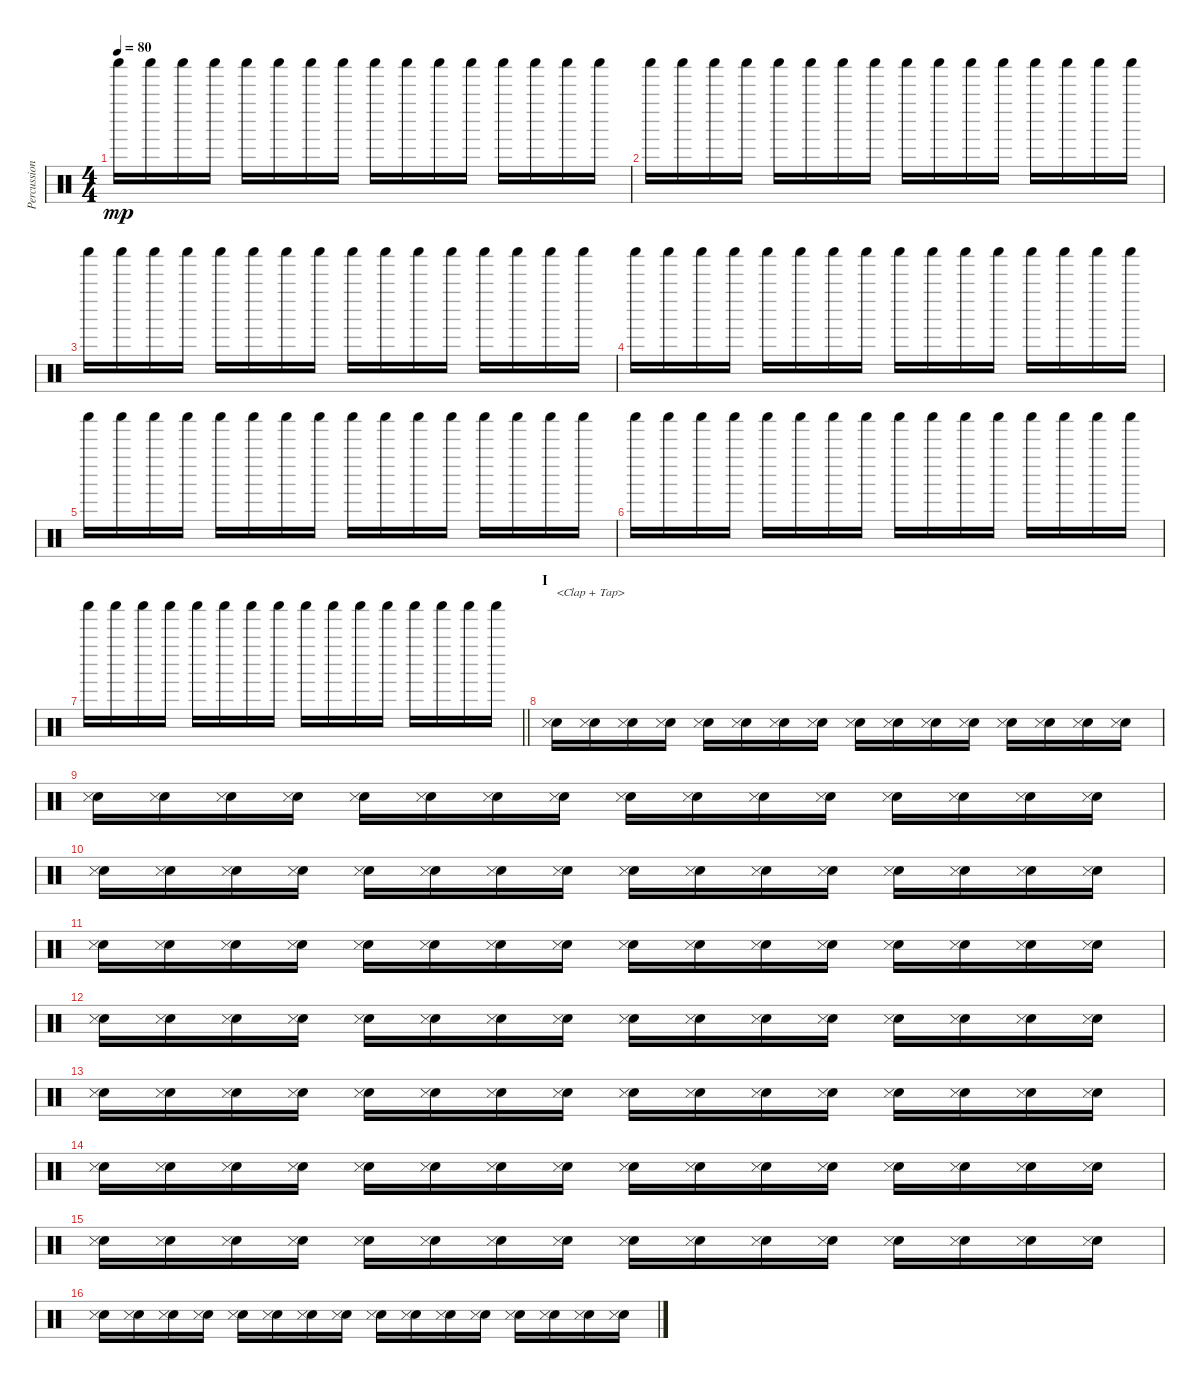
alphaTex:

\track ("Percussion" "Percussion") {instrument percussion}
\staff {score}
\articulation defaults
\ts (4 4)
\tempo 80
\clef neutral
\ks c "Shaker (hit)".16{dy mp} "Shaker (hit)".16 "Shaker (hit)".16 "Shaker (hit)".16 "Shaker (hit)".16 "Shaker (hit)".16 "Shaker (hit)".16 "Shaker (hit)".16 "Shaker (hit)".16 "Shaker (hit)".16 "Shaker (hit)".16 "Shaker (hit)".16 "Shaker (hit)".16 "Shaker (hit)".16 "Shaker (hit)".16 "Shaker (hit)".16
|
"Shaker (hit)".16 "Shaker (hit)".16 "Shaker (hit)".16 "Shaker (hit)".16 "Shaker (hit)".16 "Shaker (hit)".16 "Shaker (hit)".16 "Shaker (hit)".16 "Shaker (hit)".16 "Shaker (hit)".16 "Shaker (hit)".16 "Shaker (hit)".16 "Shaker (hit)".16 "Shaker (hit)".16 "Shaker (hit)".16 "Shaker (hit)".16 |
"Shaker (hit)".16 "Shaker (hit)".16 "Shaker (hit)".16 "Shaker (hit)".16 "Shaker (hit)".16 "Shaker (hit)".16 "Shaker (hit)".16 "Shaker (hit)".16 "Shaker (hit)".16 "Shaker (hit)".16 "Shaker (hit)".16 "Shaker (hit)".16 "Shaker (hit)".16 "Shaker (hit)".16 "Shaker (hit)".16 "Shaker (hit)".16 |
"Shaker (hit)".16 "Shaker (hit)".16 "Shaker (hit)".16 "Shaker (hit)".16 "Shaker (hit)".16 "Shaker (hit)".16 "Shaker (hit)".16 "Shaker (hit)".16 "Shaker (hit)".16 "Shaker (hit)".16 "Shaker (hit)".16 "Shaker (hit)".16 "Shaker (hit)".16 "Shaker (hit)".16 "Shaker (hit)".16 "Shaker (hit)".16 |
"Shaker (hit)".16 "Shaker (hit)".16 "Shaker (hit)".16 "Shaker (hit)".16 "Shaker (hit)".16 "Shaker (hit)".16 "Shaker (hit)".16 "Shaker (hit)".16 "Shaker (hit)".16 "Shaker (hit)".16 "Shaker (hit)".16 "Shaker (hit)".16 "Shaker (hit)".16 "Shaker (hit)".16 "Shaker (hit)".16 "Shaker (hit)".16 |
"Shaker (hit)".16 "Shaker (hit)".16 "Shaker (hit)".16 "Shaker (hit)".16 "Shaker (hit)".16 "Shaker (hit)".16 "Shaker (hit)".16 "Shaker (hit)".16 "Shaker (hit)".16 "Shaker (hit)".16 "Shaker (hit)".16 "Shaker (hit)".16 "Shaker (hit)".16 "Shaker (hit)".16 "Shaker (hit)".16 "Shaker (hit)".16 |
\barLineRight lightlight "Shaker (hit)".16 "Shaker (hit)".16 "Shaker (hit)".16 "Shaker (hit)".16 "Shaker (hit)".16 "Shaker (hit)".16 "Shaker (hit)".16 "Shaker (hit)".16 "Shaker (hit)".16 "Shaker (hit)".16 "Shaker (hit)".16 "Shaker (hit)".16 "Shaker (hit)".16 "Shaker (hit)".16 "Shaker (hit)".16 "Shaker (hit)".16
|
\section ("" "I")
("Hand Clap (hit)" "Snare (side stick) 3").16{txt "<Clap + Tap>"} ("Hand Clap (hit)" "Snare (side stick) 3").16 ("Hand Clap (hit)" "Snare (side stick) 3").16 ("Hand Clap (hit)" "Snare (side stick) 3").16 ("Hand Clap (hit)" "Snare (side stick) 3").16 ("Hand Clap (hit)" "Snare (side stick) 3").16 ("Hand Clap (hit)" "Snare (side stick) 3").16 ("Hand Clap (hit)" "Snare (side stick) 3").16 ("Hand Clap (hit)" "Snare (side stick) 3").16 ("Hand Clap (hit)" "Snare (side stick) 3").16 ("Hand Clap (hit)" "Snare (side stick) 3").16 ("Hand Clap (hit)" "Snare (side stick) 3").16 ("Hand Clap (hit)" "Snare (side stick) 3").16 ("Hand Clap (hit)" "Snare (side stick) 3").16 ("Hand Clap (hit)" "Snare (side stick) 3").16 ("Hand Clap (hit)" "Snare (side stick) 3").16 |
("Hand Clap (hit)" "Snare (side stick) 3").16 ("Hand Clap (hit)" "Snare (side stick) 3").16 ("Hand Clap (hit)" "Snare (side stick) 3").16 ("Hand Clap (hit)" "Snare (side stick) 3").16 ("Hand Clap (hit)" "Snare (side stick) 3").16 ("Hand Clap (hit)" "Snare (side stick) 3").16 ("Hand Clap (hit)" "Snare (side stick) 3").16 ("Hand Clap (hit)" "Snare (side stick) 3").16 ("Hand Clap (hit)" "Snare (side stick) 3").16 ("Hand Clap (hit)" "Snare (side stick) 3").16 ("Hand Clap (hit)" "Snare (side stick) 3").16 ("Hand Clap (hit)" "Snare (side stick) 3").16 ("Hand Clap (hit)" "Snare (side stick) 3").16 ("Hand Clap (hit)" "Snare (side stick) 3").16 ("Hand Clap (hit)" "Snare (side stick) 3").16 ("Hand Clap (hit)" "Snare (side stick) 3").16 |
("Hand Clap (hit)" "Snare (side stick) 3").16 ("Hand Clap (hit)" "Snare (side stick) 3").16 ("Hand Clap (hit)" "Snare (side stick) 3").16 ("Hand Clap (hit)" "Snare (side stick) 3").16 ("Hand Clap (hit)" "Snare (side stick) 3").16 ("Hand Clap (hit)" "Snare (side stick) 3").16 ("Hand Clap (hit)" "Snare (side stick) 3").16 ("Hand Clap (hit)" "Snare (side stick) 3").16 ("Hand Clap (hit)" "Snare (side stick) 3").16 ("Hand Clap (hit)" "Snare (side stick) 3").16 ("Hand Clap (hit)" "Snare (side stick) 3").16 ("Hand Clap (hit)" "Snare (side stick) 3").16 ("Hand Clap (hit)" "Snare (side stick) 3").16 ("Hand Clap (hit)" "Snare (side stick) 3").16 ("Hand Clap (hit)" "Snare (side stick) 3").16 ("Hand Clap (hit)" "Snare (side stick) 3").16 |
("Hand Clap (hit)" "Snare (side stick) 3").16 ("Hand Clap (hit)" "Snare (side stick) 3").16 ("Hand Clap (hit)" "Snare (side stick) 3").16 ("Hand Clap (hit)" "Snare (side stick) 3").16 ("Hand Clap (hit)" "Snare (side stick) 3").16 ("Hand Clap (hit)" "Snare (side stick) 3").16 ("Hand Clap (hit)" "Snare (side stick) 3").16 ("Hand Clap (hit)" "Snare (side stick) 3").16 ("Hand Clap (hit)" "Snare (side stick) 3").16 ("Hand Clap (hit)" "Snare (side stick) 3").16 ("Hand Clap (hit)" "Snare (side stick) 3").16 ("Hand Clap (hit)" "Snare (side stick) 3").16 ("Hand Clap (hit)" "Snare (side stick) 3").16 ("Hand Clap (hit)" "Snare (side stick) 3").16 ("Hand Clap (hit)" "Snare (side stick) 3").16 ("Hand Clap (hit)" "Snare (side stick) 3").16 |
("Hand Clap (hit)" "Snare (side stick) 3").16 ("Hand Clap (hit)" "Snare (side stick) 3").16 ("Hand Clap (hit)" "Snare (side stick) 3").16 ("Hand Clap (hit)" "Snare (side stick) 3").16 ("Hand Clap (hit)" "Snare (side stick) 3").16 ("Hand Clap (hit)" "Snare (side stick) 3").16 ("Hand Clap (hit)" "Snare (side stick) 3").16 ("Hand Clap (hit)" "Snare (side stick) 3").16 ("Hand Clap (hit)" "Snare (side stick) 3").16 ("Hand Clap (hit)" "Snare (side stick) 3").16 ("Hand Clap (hit)" "Snare (side stick) 3").16 ("Hand Clap (hit)" "Snare (side stick) 3").16 ("Hand Clap (hit)" "Snare (side stick) 3").16 ("Hand Clap (hit)" "Snare (side stick) 3").16 ("Hand Clap (hit)" "Snare (side stick) 3").16 ("Hand Clap (hit)" "Snare (side stick) 3").16 |
("Hand Clap (hit)" "Snare (side stick) 3").16 ("Hand Clap (hit)" "Snare (side stick) 3").16 ("Hand Clap (hit)" "Snare (side stick) 3").16 ("Hand Clap (hit)" "Snare (side stick) 3").16 ("Hand Clap (hit)" "Snare (side stick) 3").16 ("Hand Clap (hit)" "Snare (side stick) 3").16 ("Hand Clap (hit)" "Snare (side stick) 3").16 ("Hand Clap (hit)" "Snare (side stick) 3").16 ("Hand Clap (hit)" "Snare (side stick) 3").16 ("Hand Clap (hit)" "Snare (side stick) 3").16 ("Hand Clap (hit)" "Snare (side stick) 3").16 ("Hand Clap (hit)" "Snare (side stick) 3").16 ("Hand Clap (hit)" "Snare (side stick) 3").16 ("Hand Clap (hit)" "Snare (side stick) 3").16 ("Hand Clap (hit)" "Snare (side stick) 3").16 ("Hand Clap (hit)" "Snare (side stick) 3").16 |
("Hand Clap (hit)" "Snare (side stick) 3").16 ("Hand Clap (hit)" "Snare (side stick) 3").16 ("Hand Clap (hit)" "Snare (side stick) 3").16 ("Hand Clap (hit)" "Snare (side stick) 3").16 ("Hand Clap (hit)" "Snare (side stick) 3").16 ("Hand Clap (hit)" "Snare (side stick) 3").16 ("Hand Clap (hit)" "Snare (side stick) 3").16 ("Hand Clap (hit)" "Snare (side stick) 3").16 ("Hand Clap (hit)" "Snare (side stick) 3").16 ("Hand Clap (hit)" "Snare (side stick) 3").16 ("Hand Clap (hit)" "Snare (side stick) 3").16 ("Hand Clap (hit)" "Snare (side stick) 3").16 ("Hand Clap (hit)" "Snare (side stick) 3").16 ("Hand Clap (hit)" "Snare (side stick) 3").16 ("Hand Clap (hit)" "Snare (side stick) 3").16 ("Hand Clap (hit)" "Snare (side stick) 3").16 |
("Hand Clap (hit)" "Snare (side stick) 3").16 ("Hand Clap (hit)" "Snare (side stick) 3").16 ("Hand Clap (hit)" "Snare (side stick) 3").16 ("Hand Clap (hit)" "Snare (side stick) 3").16 ("Hand Clap (hit)" "Snare (side stick) 3").16 ("Hand Clap (hit)" "Snare (side stick) 3").16 ("Hand Clap (hit)" "Snare (side stick) 3").16 ("Hand Clap (hit)" "Snare (side stick) 3").16 ("Hand Clap (hit)" "Snare (side stick) 3").16 ("Hand Clap (hit)" "Snare (side stick) 3").16 ("Hand Clap (hit)" "Snare (side stick) 3").16 ("Hand Clap (hit)" "Snare (side stick) 3").16 ("Hand Clap (hit)" "Snare (side stick) 3").16 ("Hand Clap (hit)" "Snare (side stick) 3").16 ("Hand Clap (hit)" "Snare (side stick) 3").16 ("Hand Clap (hit)" "Snare (side stick) 3").16 |
("Hand Clap (hit)" "Snare (side stick) 3").16 ("Hand Clap (hit)" "Snare (side stick) 3").16 ("Hand Clap (hit)" "Snare (side stick) 3").16 ("Hand Clap (hit)" "Snare (side stick) 3").16 ("Hand Clap (hit)" "Snare (side stick) 3").16 ("Hand Clap (hit)" "Snare (side stick) 3").16 ("Hand Clap (hit)" "Snare (side stick) 3").16 ("Hand Clap (hit)" "Snare (side stick) 3").16 ("Hand Clap (hit)" "Snare (side stick) 3").16 ("Hand Clap (hit)" "Snare (side stick) 3").16 ("Hand Clap (hit)" "Snare (side stick) 3").16 ("Hand Clap (hit)" "Snare (side stick) 3").16 ("Hand Clap (hit)" "Snare (side stick) 3").16 ("Hand Clap (hit)" "Snare (side stick) 3").16 ("Hand Clap (hit)" "Snare (side stick) 3").16 ("Hand Clap (hit)" "Snare (side stick) 3").16
